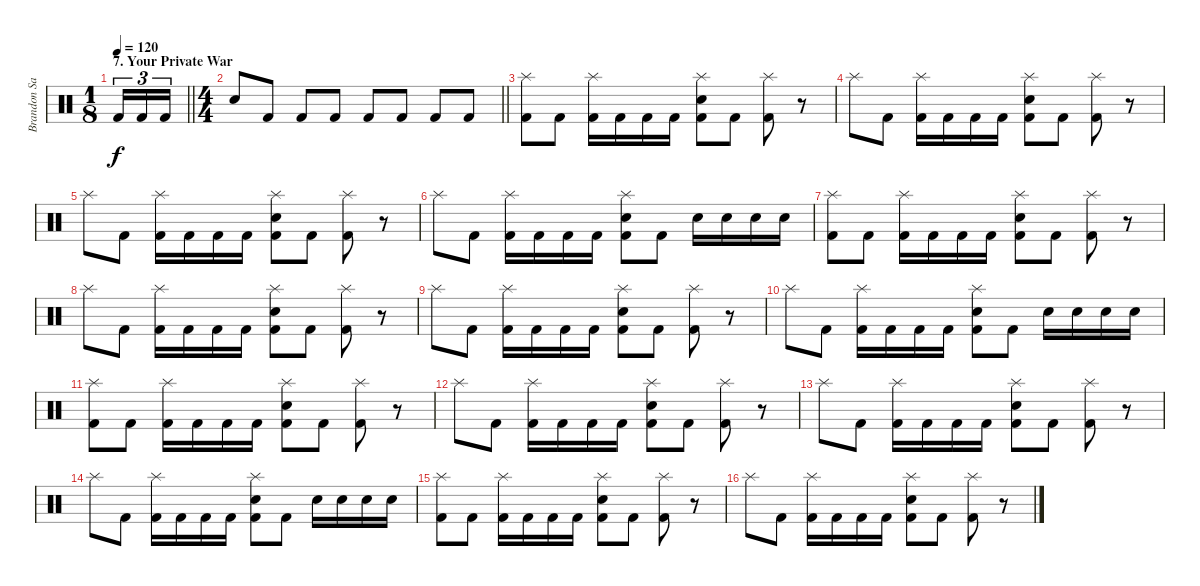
\track ("Brandon Saller" "Brandon Sa") {instrument percussion}
\staff {score}
\articulation defaults
\ts (1 8)
\section ("" "7. Your Private War")
\tempo 120
\tempo 166
\tempo 120
\clef neutral
\barLineRight lightlight
\ks c "Kick (hit) 2".16{tu (3 2) dy f} "Kick (hit) 2".16{tu (3 2)} "Kick (hit) 2".16{tu (3 2)}
|
\ts (4 4)
\section ("" "")
\barLineRight lightlight "Electric Snare (hit)".8 "Kick (hit) 2".8 "Kick (hit) 2".8 "Kick (hit) 2".8 "Kick (hit) 2".8 "Kick (hit) 2".8 "Kick (hit) 2".8 "Kick (hit) 2".8
|
("Splash (hit)" "Kick (hit) 2").8 "Kick (hit) 2".8 ("Splash (hit)" "Kick (hit) 2").16 "Kick (hit) 2".16 "Kick (hit) 2".16 "Kick (hit) 2".16 ("Splash (hit)" "Electric Snare (hit)" "Kick (hit) 2").8 "Kick (hit) 2".8 ("Splash (hit)" "Kick (hit) 2").8 r.8 |
"Splash (hit)".8 "Kick (hit) 2".8 ("Splash (hit)" "Kick (hit) 2").16 "Kick (hit) 2".16 "Kick (hit) 2".16 "Kick (hit) 2".16 ("Splash (hit)" "Electric Snare (hit)" "Kick (hit) 2").8 "Kick (hit) 2".8 ("Splash (hit)" "Kick (hit) 2").8 r.8 |
"Splash (hit)".8 "Kick (hit) 2".8 ("Splash (hit)" "Kick (hit) 2").16 "Kick (hit) 2".16 "Kick (hit) 2".16 "Kick (hit) 2".16 ("Splash (hit)" "Electric Snare (hit)" "Kick (hit) 2").8 "Kick (hit) 2".8 ("Splash (hit)" "Kick (hit) 2").8 r.8 |
"Splash (hit)".8 "Kick (hit) 2".8 ("Splash (hit)" "Kick (hit) 2").16 "Kick (hit) 2".16 "Kick (hit) 2".16 "Kick (hit) 2".16 ("Splash (hit)" "Electric Snare (hit)" "Kick (hit) 2").8 "Kick (hit) 2".8 "Electric Snare (hit)".16 "Electric Snare (hit)".16 "Electric Snare (hit)".16 "Electric Snare (hit)".16 |
("Splash (hit)" "Kick (hit) 2").8 "Kick (hit) 2".8 ("Splash (hit)" "Kick (hit) 2").16 "Kick (hit) 2".16 "Kick (hit) 2".16 "Kick (hit) 2".16 ("Splash (hit)" "Electric Snare (hit)" "Kick (hit) 2").8 "Kick (hit) 2".8 ("Splash (hit)" "Kick (hit) 2").8 r.8 |
"Splash (hit)".8 "Kick (hit) 2".8 ("Splash (hit)" "Kick (hit) 2").16 "Kick (hit) 2".16 "Kick (hit) 2".16 "Kick (hit) 2".16 ("Splash (hit)" "Electric Snare (hit)" "Kick (hit) 2").8 "Kick (hit) 2".8 ("Splash (hit)" "Kick (hit) 2").8 r.8 |
"Splash (hit)".8 "Kick (hit) 2".8 ("Splash (hit)" "Kick (hit) 2").16 "Kick (hit) 2".16 "Kick (hit) 2".16 "Kick (hit) 2".16 ("Splash (hit)" "Electric Snare (hit)" "Kick (hit) 2").8 "Kick (hit) 2".8 ("Splash (hit)" "Kick (hit) 2").8 r.8 |
"Splash (hit)".8 "Kick (hit) 2".8 ("Splash (hit)" "Kick (hit) 2").16 "Kick (hit) 2".16 "Kick (hit) 2".16 "Kick (hit) 2".16 ("Splash (hit)" "Electric Snare (hit)" "Kick (hit) 2").8 "Kick (hit) 2".8 "Electric Snare (hit)".16 "Electric Snare (hit)".16 "Electric Snare (hit)".16 "Electric Snare (hit)".16 |
("Splash (hit)" "Kick (hit) 2").8 "Kick (hit) 2".8 ("Splash (hit)" "Kick (hit) 2").16 "Kick (hit) 2".16 "Kick (hit) 2".16 "Kick (hit) 2".16 ("Splash (hit)" "Electric Snare (hit)" "Kick (hit) 2").8 "Kick (hit) 2".8 ("Splash (hit)" "Kick (hit) 2").8 r.8 |
"Splash (hit)".8 "Kick (hit) 2".8 ("Splash (hit)" "Kick (hit) 2").16 "Kick (hit) 2".16 "Kick (hit) 2".16 "Kick (hit) 2".16 ("Splash (hit)" "Electric Snare (hit)" "Kick (hit) 2").8 "Kick (hit) 2".8 ("Splash (hit)" "Kick (hit) 2").8 r.8 |
"Splash (hit)".8 "Kick (hit) 2".8 ("Splash (hit)" "Kick (hit) 2").16 "Kick (hit) 2".16 "Kick (hit) 2".16 "Kick (hit) 2".16 ("Splash (hit)" "Electric Snare (hit)" "Kick (hit) 2").8 "Kick (hit) 2".8 ("Splash (hit)" "Kick (hit) 2").8 r.8 |
"Splash (hit)".8 "Kick (hit) 2".8 ("Splash (hit)" "Kick (hit) 2").16 "Kick (hit) 2".16 "Kick (hit) 2".16 "Kick (hit) 2".16 ("Splash (hit)" "Electric Snare (hit)" "Kick (hit) 2").8 "Kick (hit) 2".8 "Electric Snare (hit)".16 "Electric Snare (hit)".16 "Electric Snare (hit)".16 "Electric Snare (hit)".16 |
("Splash (hit)" "Kick (hit) 2").8 "Kick (hit) 2".8 ("Splash (hit)" "Kick (hit) 2").16 "Kick (hit) 2".16 "Kick (hit) 2".16 "Kick (hit) 2".16 ("Splash (hit)" "Electric Snare (hit)" "Kick (hit) 2").8 "Kick (hit) 2".8 ("Splash (hit)" "Kick (hit) 2").8 r.8 |
"Splash (hit)".8 "Kick (hit) 2".8 ("Splash (hit)" "Kick (hit) 2").16 "Kick (hit) 2".16 "Kick (hit) 2".16 "Kick (hit) 2".16 ("Splash (hit)" "Electric Snare (hit)" "Kick (hit) 2").8 "Kick (hit) 2".8 ("Splash (hit)" "Kick (hit) 2").8 r.8
